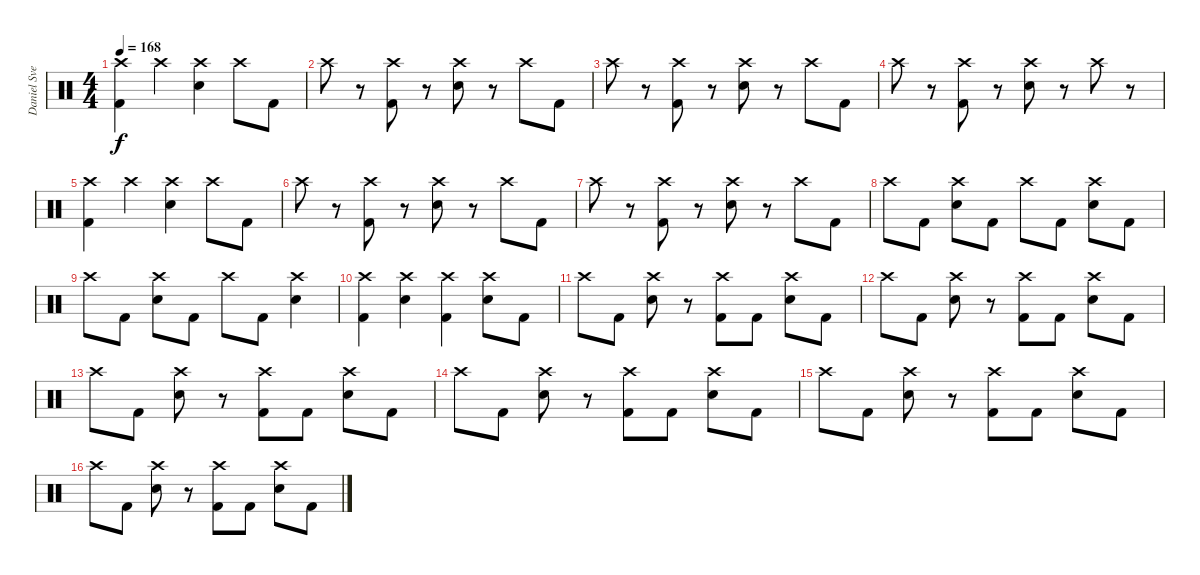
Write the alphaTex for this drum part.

\track ("Daniel Svensson" "Daniel Sve") {instrument percussion}
\staff {score}
\articulation defaults
\ts (4 4)
\tempo 168
\clef neutral
\ks c
("Crash high (hit)" "Kick (hit) 2").4{dy f} "Crash high (hit)".4 ("Crash high (hit)" "Electric Snare (hit)").4 "Crash high (hit)".8 "Kick (hit) 2".8 |
"Crash high (hit)".8 r.8 ("Crash high (hit)" "Kick (hit) 2").8 r.8 ("Crash high (hit)" "Electric Snare (hit)").8 r.8 "Crash high (hit)".8 "Kick (hit) 2".8 |
"Crash high (hit)".8 r.8 ("Crash high (hit)" "Kick (hit) 2").8 r.8 ("Electric Snare (hit)" "Crash high (hit)").8 r.8 "Crash high (hit)".8 "Kick (hit) 2".8 |
"Crash high (hit)".8 r.8 ("Crash high (hit)" "Kick (hit) 2").8 r.8 ("Crash high (hit)" "Electric Snare (hit)").8 r.8 "Crash high (hit)".8 r.8 |
("Crash high (hit)" "Kick (hit) 2").4 "Crash high (hit)".4 ("Crash high (hit)" "Electric Snare (hit)").4 "Crash high (hit)".8 "Kick (hit) 2".8 |
"Crash high (hit)".8 r.8 ("Crash high (hit)" "Kick (hit) 2").8 r.8 ("Crash high (hit)" "Electric Snare (hit)").8 r.8 "Crash high (hit)".8 "Kick (hit) 2".8 |
"Crash high (hit)".8 r.8 ("Crash high (hit)" "Kick (hit) 2").8 r.8 ("Electric Snare (hit)" "Crash high (hit)").8 r.8 "Crash high (hit)".8 "Kick (hit) 2".8 |
"Crash high (hit)".8 "Kick (hit) 2".8 ("Crash high (hit)" "Electric Snare (hit)").8 "Kick (hit) 2".8 "Crash high (hit)".8 "Kick (hit) 2".8 ("Crash high (hit)" "Electric Snare (hit)").8 "Kick (hit) 2".8 |
"Crash high (hit)".8 "Kick (hit) 2".8 ("Crash high (hit)" "Electric Snare (hit)").8 "Kick (hit) 2".8 "Crash high (hit)".8 "Kick (hit) 2".8 ("Crash high (hit)" "Electric Snare (hit)").4 |
("Crash high (hit)" "Kick (hit) 2").4 ("Crash high (hit)" "Electric Snare (hit)").4 ("Crash high (hit)" "Kick (hit) 2").4 ("Crash high (hit)" "Electric Snare (hit)").8 "Kick (hit) 2".8 |
"Crash high (hit)".8 "Kick (hit) 2".8 ("Crash high (hit)" "Electric Snare (hit)").8 r.8 ("Crash high (hit)" "Kick (hit) 2").8 "Kick (hit) 2".8 ("Crash high (hit)" "Electric Snare (hit)").8 "Kick (hit) 2".8 |
"Crash high (hit)".8 "Kick (hit) 2".8 ("Crash high (hit)" "Electric Snare (hit)").8 r.8 ("Crash high (hit)" "Kick (hit) 2").8 "Kick (hit) 2".8 ("Crash high (hit)" "Electric Snare (hit)").8 "Kick (hit) 2".8 |
"Crash high (hit)".8 "Kick (hit) 2".8 ("Crash high (hit)" "Electric Snare (hit)").8 r.8 ("Crash high (hit)" "Kick (hit) 2").8 "Kick (hit) 2".8 ("Crash high (hit)" "Electric Snare (hit)").8 "Kick (hit) 2".8 |
"Crash high (hit)".8 "Kick (hit) 2".8 ("Crash high (hit)" "Electric Snare (hit)").8 r.8 ("Crash high (hit)" "Kick (hit) 2").8 "Kick (hit) 2".8 ("Crash high (hit)" "Electric Snare (hit)").8 "Kick (hit) 2".8 |
"Crash high (hit)".8 "Kick (hit) 2".8 ("Crash high (hit)" "Electric Snare (hit)").8 r.8 ("Crash high (hit)" "Kick (hit) 2").8 "Kick (hit) 2".8 ("Crash high (hit)" "Electric Snare (hit)").8 "Kick (hit) 2".8 |
"Crash high (hit)".8 "Kick (hit) 2".8 ("Crash high (hit)" "Electric Snare (hit)").8 r.8 ("Crash high (hit)" "Kick (hit) 2").8 "Kick (hit) 2".8 ("Crash high (hit)" "Electric Snare (hit)").8 "Kick (hit) 2".8
